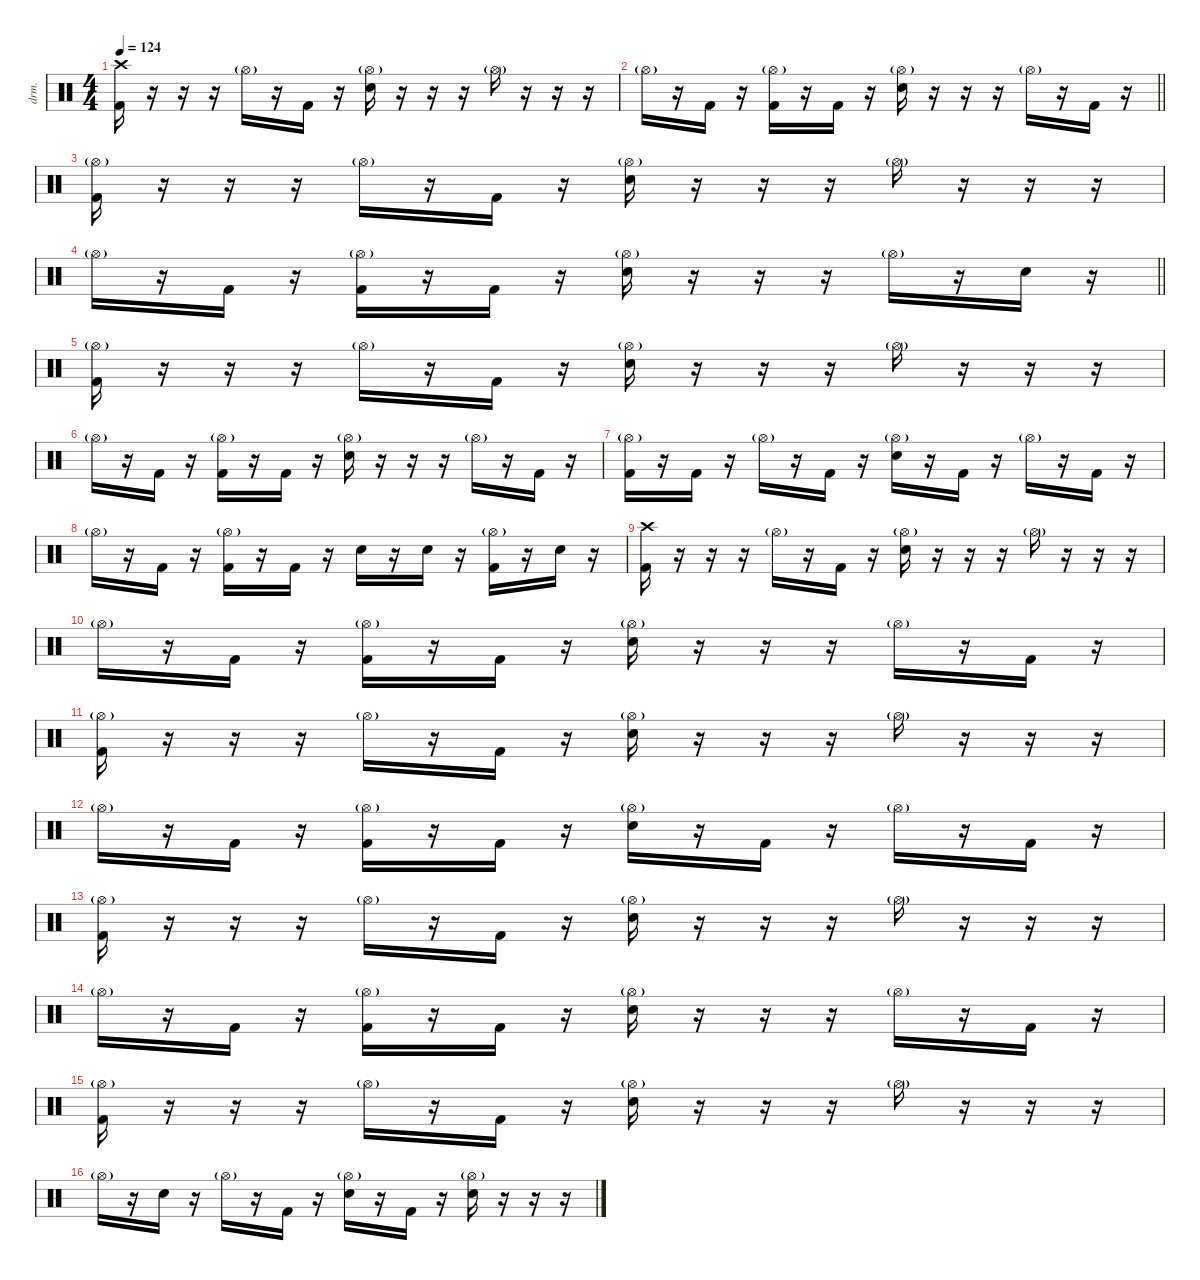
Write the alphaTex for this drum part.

\defaultSystemsLayout 4
\hideDynamics
\bracketExtendMode nobrackets
\otherSystemsTrackNameOrientation horizontal
\track ("Percussion" "drm.") {instrument percussion}
\staff {score}
\articulation defaults
\ts (4 4)
\section ("" "")
\tempo 124
\clef neutral
\ks c
("Kick (hit) 2" "Crash high (hit)").16{dy f beam Down} r.16{beam Down} r.16{beam Down} r.16{beam Down} "Hi-Hat (open)"{g}.16{dy mf beam Down} r.16{beam Down} "Kick (hit) 2".16{dy f beam Down} r.16{beam Down} ("Snare (hit) 2" "Hi-Hat (open)"{g}).16{beam Down} r.16{beam Down} r.16{beam Down} r.16{beam Down} "Hi-Hat (open)"{g}.16{dy mf beam Down} r.16{beam Down} r.16{beam Down} r.16{beam Down} |
\barLineRight lightlight "Hi-Hat (open)"{g}.16{beam Down}
r.16{beam Down} "Kick (hit) 2".16{dy f beam Down} r.16{beam Down} ("Kick (hit) 2" "Hi-Hat (open)"{g}).16{beam Down} r.16{beam Down} "Kick (hit) 2".16{beam Down} r.16{beam Down} ("Snare (hit) 2" "Hi-Hat (open)"{g}).16{beam Down} r.16{beam Down} r.16{beam Down} r.16{beam Down} "Hi-Hat (open)"{g}.16{dy mf beam Down} r.16{beam Down} "Kick (hit) 2".16{dy f beam Down} r.16{beam Down} |
("Kick (hit) 2" "Hi-Hat (open)"{g}).16{beam Down} r.16{beam Down} r.16{beam Down} r.16{beam Down} "Hi-Hat (open)"{g}.16{dy mf beam Down} r.16{beam Down} "Kick (hit) 2".16{dy f beam Down} r.16{beam Down} ("Snare (hit) 2" "Hi-Hat (open)"{g}).16{beam Down} r.16{beam Down} r.16{beam Down} r.16{beam Down} "Hi-Hat (open)"{g}.16{dy mf beam Down} r.16{beam Down} r.16{beam Down} r.16{beam Down} |
\barLineRight lightlight "Hi-Hat (open)"{g}.16{beam Down}
r.16{beam Down} "Kick (hit) 2".16{dy f beam Down} r.16{beam Down} ("Kick (hit) 2" "Hi-Hat (open)"{g}).16{beam Down} r.16{beam Down} "Kick (hit) 2".16{beam Down} r.16{beam Down} ("Snare (hit) 2" "Hi-Hat (open)"{g}).16{beam Down} r.16{beam Down} r.16{beam Down} r.16{beam Down} "Hi-Hat (open)"{g}.16{dy mf beam Down} r.16{beam Down} "Snare (hit) 2".16{dy f beam Down} r.16{beam Down} |
("Kick (hit) 2" "Hi-Hat (open)"{g}).16{beam Down} r.16{beam Down} r.16{beam Down} r.16{beam Down} "Hi-Hat (open)"{g}.16{dy mf beam Down} r.16{beam Down} "Kick (hit) 2".16{dy f beam Down} r.16{beam Down} ("Snare (hit) 2" "Hi-Hat (open)"{g}).16{beam Down} r.16{beam Down} r.16{beam Down} r.16{beam Down} "Hi-Hat (open)"{g}.16{dy mf beam Down} r.16{beam Down} r.16{beam Down} r.16{beam Down} |
"Hi-Hat (open)"{g}.16{beam Down} r.16{beam Down} "Kick (hit) 2".16{dy f beam Down} r.16{beam Down} ("Kick (hit) 2" "Hi-Hat (open)"{g}).16{beam Down} r.16{beam Down} "Kick (hit) 2".16{beam Down} r.16{beam Down} ("Snare (hit) 2" "Hi-Hat (open)"{g}).16{beam Down} r.16{beam Down} r.16{beam Down} r.16{beam Down} "Hi-Hat (open)"{g}.16{dy mf beam Down} r.16{beam Down} "Kick (hit) 2".16{dy f beam Down} r.16{beam Down} |
("Kick (hit) 2" "Hi-Hat (open)"{g}).16{beam Down} r.16{beam Down} "Kick (hit) 2".16{beam Down} r.16{beam Down} "Hi-Hat (open)"{g}.16{dy mf beam Down} r.16{beam Down} "Kick (hit) 2".16{dy f beam Down} r.16{beam Down} ("Snare (hit) 2" "Hi-Hat (open)"{g}).16{beam Down} r.16{beam Down} "Kick (hit) 2".16{beam Down} r.16{beam Down} "Hi-Hat (open)"{g}.16{dy mf beam Down} r.16{beam Down} "Kick (hit) 2".16{dy f beam Down} r.16{beam Down} |
"Hi-Hat (open)"{g}.16{dy mf beam Down} r.16{beam Down} "Kick (hit) 2".16{dy f beam Down} r.16{beam Down} ("Kick (hit) 2" "Hi-Hat (open)"{g}).16{beam Down} r.16{beam Down} "Kick (hit) 2".16{beam Down} r.16{beam Down} "Snare (hit) 2".16{beam Down} r.16{beam Down} "Snare (hit) 2".16{beam Down} r.16{beam Down} ("Kick (hit) 2" "Hi-Hat (open)"{g}).16{beam Down} r.16{beam Down} "Snare (hit) 2".16{beam Down} r.16{beam Down} |
("Kick (hit) 2" "Crash high (hit)").16{beam Down} r.16{beam Down} r.16{beam Down} r.16{beam Down} "Hi-Hat (open)"{g}.16{dy mf beam Down} r.16{beam Down} "Kick (hit) 2".16{dy f beam Down} r.16{beam Down} ("Snare (hit) 2" "Hi-Hat (open)"{g}).16{beam Down} r.16{beam Down} r.16{beam Down} r.16{beam Down} "Hi-Hat (open)"{g}.16{dy mf beam Down} r.16{beam Down} r.16{beam Down} r.16{beam Down} |
"Hi-Hat (open)"{g}.16{beam Down} r.16{beam Down} "Kick (hit) 2".16{dy f beam Down} r.16{beam Down} ("Kick (hit) 2" "Hi-Hat (open)"{g}).16{beam Down} r.16{beam Down} "Kick (hit) 2".16{beam Down} r.16{beam Down} ("Snare (hit) 2" "Hi-Hat (open)"{g}).16{beam Down} r.16{beam Down} r.16{beam Down} r.16{beam Down} "Hi-Hat (open)"{g}.16{dy mf beam Down} r.16{beam Down} "Kick (hit) 2".16{dy f beam Down} r.16{beam Down} |
("Kick (hit) 2" "Hi-Hat (open)"{g}).16{beam Down} r.16{beam Down} r.16{beam Down} r.16{beam Down} "Hi-Hat (open)"{g}.16{dy mf beam Down} r.16{beam Down} "Kick (hit) 2".16{dy f beam Down} r.16{beam Down} ("Snare (hit) 2" "Hi-Hat (open)"{g}).16{beam Down} r.16{beam Down} r.16{beam Down} r.16{beam Down} "Hi-Hat (open)"{g}.16{dy mf beam Down} r.16{beam Down} r.16{beam Down} r.16{beam Down} |
"Hi-Hat (open)"{g}.16{beam Down} r.16{beam Down} "Kick (hit) 2".16{dy f beam Down} r.16{beam Down} ("Kick (hit) 2" "Hi-Hat (open)"{g}).16{beam Down} r.16{beam Down} "Kick (hit) 2".16{beam Down} r.16{beam Down} ("Snare (hit) 2" "Hi-Hat (open)"{g}).16{beam Down} r.16{beam Down} "Kick (hit) 2".16{beam Down} r.16{beam Down} "Hi-Hat (open)"{g}.16{dy mf beam Down} r.16{beam Down} "Kick (hit) 2".16{dy f beam Down} r.16{beam Down} |
("Kick (hit) 2" "Hi-Hat (open)"{g}).16{beam Down} r.16{beam Down} r.16{beam Down} r.16{beam Down} "Hi-Hat (open)"{g}.16{dy mf beam Down} r.16{beam Down} "Kick (hit) 2".16{dy f beam Down} r.16{beam Down} ("Snare (hit) 2" "Hi-Hat (open)"{g}).16{beam Down} r.16{beam Down} r.16{beam Down} r.16{beam Down} "Hi-Hat (open)"{g}.16{dy mf beam Down} r.16{beam Down} r.16{beam Down} r.16{beam Down} |
"Hi-Hat (open)"{g}.16{beam Down} r.16{beam Down} "Kick (hit) 2".16{dy f beam Down} r.16{beam Down} ("Kick (hit) 2" "Hi-Hat (open)"{g}).16{beam Down} r.16{beam Down} "Kick (hit) 2".16{beam Down} r.16{beam Down} ("Snare (hit) 2" "Hi-Hat (open)"{g}).16{beam Down} r.16{beam Down} r.16{beam Down} r.16{beam Down} "Hi-Hat (open)"{g}.16{dy mf beam Down} r.16{beam Down} "Kick (hit) 2".16{dy f beam Down} r.16{beam Down} |
("Kick (hit) 2" "Hi-Hat (open)"{g}).16{beam Down} r.16{beam Down} r.16{beam Down} r.16{beam Down} "Hi-Hat (open)"{g}.16{dy mf beam Down} r.16{beam Down} "Kick (hit) 2".16{dy f beam Down} r.16{beam Down} ("Snare (hit) 2" "Hi-Hat (open)"{g}).16{beam Down} r.16{beam Down} r.16{beam Down} r.16{beam Down} "Hi-Hat (open)"{g}.16{dy mf beam Down} r.16{beam Down} r.16{beam Down} r.16{beam Down} |
"Hi-Hat (open)"{g}.16{beam Down} r.16{beam Down} "Snare (hit) 2".16{dy f beam Down} r.16{beam Down} "Hi-Hat (open)"{g}.16{dy mf beam Down} r.16{beam Down} "Kick (hit) 2".16{dy f beam Down} r.16{beam Down} ("Snare (hit) 2" "Hi-Hat (open)"{g}).16{beam Down} r.16{beam Down} "Kick (hit) 2".16{beam Down} r.16{beam Down} ("Snare (hit) 2" "Hi-Hat (open)"{g}).16{beam Down} r.16{beam Down} r.16{beam Down} r.16{beam Down}
